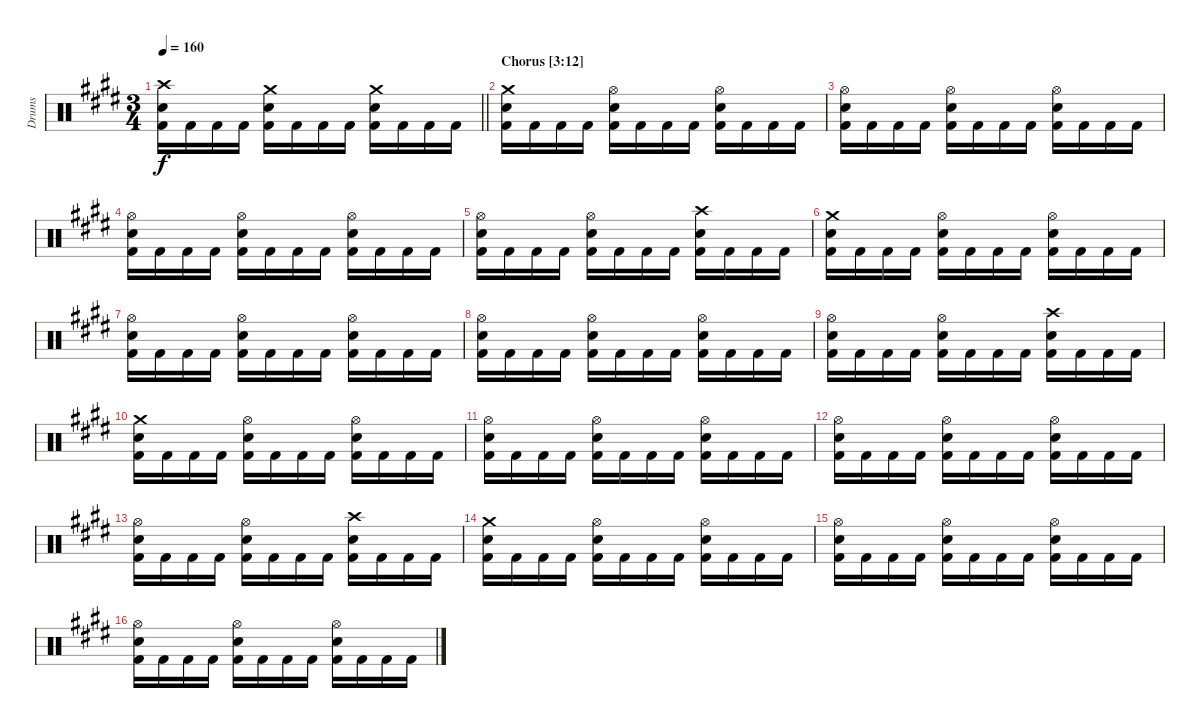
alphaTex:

\track ("Drums" "Drums") {instrument percussion}
\staff {score}
\articulation defaults
\ts (3 4)
\tempo 160
\clef neutral
\barLineRight lightlight
\ks c#minor
("Crash high (hit)" "Snare (hit) 2" "Kick (hit) 2").16{dy f} "Kick (hit) 2".16 "Kick (hit) 2".16 "Kick (hit) 2".16 ("Crash medium (hit)" "Snare (hit) 2" "Kick (hit) 2").16 "Kick (hit) 2".16 "Kick (hit) 2".16 "Kick (hit) 2".16 ("Crash medium (hit)" "Snare (hit) 2" "Kick (hit) 2").16 "Kick (hit) 2".16 "Kick (hit) 2".16 "Kick (hit) 2".16 |
\section ("" "Chorus [3:12]")
("Crash medium (hit)" "Snare (hit) 2" "Kick (hit) 2").16 "Kick (hit) 2".16 "Kick (hit) 2".16 "Kick (hit) 2".16 ("Hi-Hat (open)" "Snare (hit) 2" "Kick (hit) 2").16 "Kick (hit) 2".16 "Kick (hit) 2".16 "Kick (hit) 2".16 ("Hi-Hat (open)" "Snare (hit) 2" "Kick (hit) 2").16 "Kick (hit) 2".16 "Kick (hit) 2".16 "Kick (hit) 2".16 |
("Hi-Hat (open)" "Snare (hit) 2" "Kick (hit) 2").16 "Kick (hit) 2".16 "Kick (hit) 2".16 "Kick (hit) 2".16 ("Hi-Hat (open)" "Snare (hit) 2" "Kick (hit) 2").16 "Kick (hit) 2".16 "Kick (hit) 2".16 "Kick (hit) 2".16 ("Hi-Hat (open)" "Snare (hit) 2" "Kick (hit) 2").16 "Kick (hit) 2".16 "Kick (hit) 2".16 "Kick (hit) 2".16 |
("Hi-Hat (open)" "Snare (hit) 2" "Kick (hit) 2").16 "Kick (hit) 2".16 "Kick (hit) 2".16 "Kick (hit) 2".16 ("Hi-Hat (open)" "Snare (hit) 2" "Kick (hit) 2").16 "Kick (hit) 2".16 "Kick (hit) 2".16 "Kick (hit) 2".16 ("Hi-Hat (open)" "Snare (hit) 2" "Kick (hit) 2").16 "Kick (hit) 2".16 "Kick (hit) 2".16 "Kick (hit) 2".16 |
("Hi-Hat (open)" "Snare (hit) 2" "Kick (hit) 2").16 "Kick (hit) 2".16 "Kick (hit) 2".16 "Kick (hit) 2".16 ("Hi-Hat (open)" "Snare (hit) 2" "Kick (hit) 2").16 "Kick (hit) 2".16 "Kick (hit) 2".16 "Kick (hit) 2".16 ("Crash high (hit)" "Snare (hit) 2" "Kick (hit) 2").16 "Kick (hit) 2".16 "Kick (hit) 2".16 "Kick (hit) 2".16 |
("Crash medium (hit)" "Snare (hit) 2" "Kick (hit) 2").16 "Kick (hit) 2".16 "Kick (hit) 2".16 "Kick (hit) 2".16 ("Hi-Hat (open)" "Snare (hit) 2" "Kick (hit) 2").16 "Kick (hit) 2".16 "Kick (hit) 2".16 "Kick (hit) 2".16 ("Hi-Hat (open)" "Snare (hit) 2" "Kick (hit) 2").16 "Kick (hit) 2".16 "Kick (hit) 2".16 "Kick (hit) 2".16 |
("Hi-Hat (open)" "Snare (hit) 2" "Kick (hit) 2").16 "Kick (hit) 2".16 "Kick (hit) 2".16 "Kick (hit) 2".16 ("Hi-Hat (open)" "Snare (hit) 2" "Kick (hit) 2").16 "Kick (hit) 2".16 "Kick (hit) 2".16 "Kick (hit) 2".16 ("Hi-Hat (open)" "Snare (hit) 2" "Kick (hit) 2").16 "Kick (hit) 2".16 "Kick (hit) 2".16 "Kick (hit) 2".16 |
("Hi-Hat (open)" "Snare (hit) 2" "Kick (hit) 2").16 "Kick (hit) 2".16 "Kick (hit) 2".16 "Kick (hit) 2".16 ("Hi-Hat (open)" "Snare (hit) 2" "Kick (hit) 2").16 "Kick (hit) 2".16 "Kick (hit) 2".16 "Kick (hit) 2".16 ("Hi-Hat (open)" "Snare (hit) 2" "Kick (hit) 2").16 "Kick (hit) 2".16 "Kick (hit) 2".16 "Kick (hit) 2".16 |
("Hi-Hat (open)" "Snare (hit) 2" "Kick (hit) 2").16 "Kick (hit) 2".16 "Kick (hit) 2".16 "Kick (hit) 2".16 ("Hi-Hat (open)" "Snare (hit) 2" "Kick (hit) 2").16 "Kick (hit) 2".16 "Kick (hit) 2".16 "Kick (hit) 2".16 ("Crash high (hit)" "Snare (hit) 2" "Kick (hit) 2").16 "Kick (hit) 2".16 "Kick (hit) 2".16 "Kick (hit) 2".16 |
("Crash medium (hit)" "Snare (hit) 2" "Kick (hit) 2").16 "Kick (hit) 2".16 "Kick (hit) 2".16 "Kick (hit) 2".16 ("Hi-Hat (open)" "Snare (hit) 2" "Kick (hit) 2").16 "Kick (hit) 2".16 "Kick (hit) 2".16 "Kick (hit) 2".16 ("Hi-Hat (open)" "Snare (hit) 2" "Kick (hit) 2").16 "Kick (hit) 2".16 "Kick (hit) 2".16 "Kick (hit) 2".16 |
("Hi-Hat (open)" "Snare (hit) 2" "Kick (hit) 2").16 "Kick (hit) 2".16 "Kick (hit) 2".16 "Kick (hit) 2".16 ("Hi-Hat (open)" "Snare (hit) 2" "Kick (hit) 2").16 "Kick (hit) 2".16 "Kick (hit) 2".16 "Kick (hit) 2".16 ("Hi-Hat (open)" "Snare (hit) 2" "Kick (hit) 2").16 "Kick (hit) 2".16 "Kick (hit) 2".16 "Kick (hit) 2".16 |
("Hi-Hat (open)" "Snare (hit) 2" "Kick (hit) 2").16 "Kick (hit) 2".16 "Kick (hit) 2".16 "Kick (hit) 2".16 ("Hi-Hat (open)" "Snare (hit) 2" "Kick (hit) 2").16 "Kick (hit) 2".16 "Kick (hit) 2".16 "Kick (hit) 2".16 ("Hi-Hat (open)" "Snare (hit) 2" "Kick (hit) 2").16 "Kick (hit) 2".16 "Kick (hit) 2".16 "Kick (hit) 2".16 |
("Hi-Hat (open)" "Snare (hit) 2" "Kick (hit) 2").16 "Kick (hit) 2".16 "Kick (hit) 2".16 "Kick (hit) 2".16 ("Hi-Hat (open)" "Snare (hit) 2" "Kick (hit) 2").16 "Kick (hit) 2".16 "Kick (hit) 2".16 "Kick (hit) 2".16 ("Crash high (hit)" "Snare (hit) 2" "Kick (hit) 2").16 "Kick (hit) 2".16 "Kick (hit) 2".16 "Kick (hit) 2".16 |
("Crash medium (hit)" "Snare (hit) 2" "Kick (hit) 2").16 "Kick (hit) 2".16 "Kick (hit) 2".16 "Kick (hit) 2".16 ("Hi-Hat (open)" "Snare (hit) 2" "Kick (hit) 2").16 "Kick (hit) 2".16 "Kick (hit) 2".16 "Kick (hit) 2".16 ("Hi-Hat (open)" "Snare (hit) 2" "Kick (hit) 2").16 "Kick (hit) 2".16 "Kick (hit) 2".16 "Kick (hit) 2".16 |
("Hi-Hat (open)" "Snare (hit) 2" "Kick (hit) 2").16 "Kick (hit) 2".16 "Kick (hit) 2".16 "Kick (hit) 2".16 ("Hi-Hat (open)" "Snare (hit) 2" "Kick (hit) 2").16 "Kick (hit) 2".16 "Kick (hit) 2".16 "Kick (hit) 2".16 ("Hi-Hat (open)" "Snare (hit) 2" "Kick (hit) 2").16 "Kick (hit) 2".16 "Kick (hit) 2".16 "Kick (hit) 2".16 |
("Hi-Hat (open)" "Snare (hit) 2" "Kick (hit) 2").16 "Kick (hit) 2".16 "Kick (hit) 2".16 "Kick (hit) 2".16 ("Hi-Hat (open)" "Snare (hit) 2" "Kick (hit) 2").16 "Kick (hit) 2".16 "Kick (hit) 2".16 "Kick (hit) 2".16 ("Hi-Hat (open)" "Snare (hit) 2" "Kick (hit) 2").16 "Kick (hit) 2".16 "Kick (hit) 2".16 "Kick (hit) 2".16
